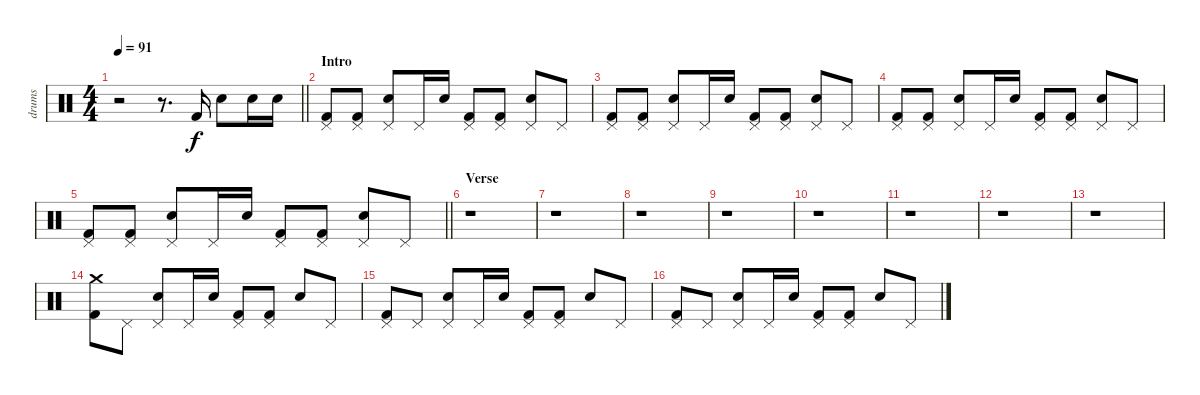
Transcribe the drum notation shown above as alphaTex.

\track ("drums" "drums") {instrument percussion}
\staff {score}
\articulation defaults
\ts (4 4)
\tempo 91
\clef neutral
\barLineRight lightlight
\ks c
r.2{dy f} r.8{d} "Kick (hit) 2".16 "Electric Snare (hit)".8 "Electric Snare (hit)".16 "Electric Snare (hit)".16 |
\section ("" "Intro")
("Pedal Hi-Hat (hit)" "Kick (hit) 2").8 ("Pedal Hi-Hat (hit)" "Kick (hit) 2").8 ("Pedal Hi-Hat (hit)" "Electric Snare (hit)").8 "Pedal Hi-Hat (hit)".16 "Electric Snare (hit)".16 ("Pedal Hi-Hat (hit)" "Kick (hit) 2").8 ("Pedal Hi-Hat (hit)" "Kick (hit) 2").8 ("Pedal Hi-Hat (hit)" "Electric Snare (hit)").8 "Pedal Hi-Hat (hit)".8 |
("Pedal Hi-Hat (hit)" "Kick (hit) 2").8 ("Pedal Hi-Hat (hit)" "Kick (hit) 2").8 ("Pedal Hi-Hat (hit)" "Electric Snare (hit)").8 "Pedal Hi-Hat (hit)".16 "Electric Snare (hit)".16 ("Pedal Hi-Hat (hit)" "Kick (hit) 2").8 ("Pedal Hi-Hat (hit)" "Kick (hit) 2").8 ("Pedal Hi-Hat (hit)" "Electric Snare (hit)").8 "Pedal Hi-Hat (hit)".8 |
("Pedal Hi-Hat (hit)" "Kick (hit) 2").8 ("Pedal Hi-Hat (hit)" "Kick (hit) 2").8 ("Pedal Hi-Hat (hit)" "Electric Snare (hit)").8 "Pedal Hi-Hat (hit)".16 "Electric Snare (hit)".16 ("Pedal Hi-Hat (hit)" "Kick (hit) 2").8 ("Pedal Hi-Hat (hit)" "Kick (hit) 2").8 ("Pedal Hi-Hat (hit)" "Electric Snare (hit)").8 "Pedal Hi-Hat (hit)".8 |
\barLineRight lightlight
("Pedal Hi-Hat (hit)" "Kick (hit) 2").8 ("Pedal Hi-Hat (hit)" "Kick (hit) 2").8 ("Pedal Hi-Hat (hit)" "Electric Snare (hit)").8 "Pedal Hi-Hat (hit)".16 "Electric Snare (hit)".16 ("Pedal Hi-Hat (hit)" "Kick (hit) 2").8 ("Pedal Hi-Hat (hit)" "Kick (hit) 2").8 ("Pedal Hi-Hat (hit)" "Electric Snare (hit)").8 "Pedal Hi-Hat (hit)".8 |
\section ("" "Verse")
r.1 |
r.1 |
r.1 |
r.1 |
r.1 |
r.1 |
r.1 |
r.1 |
("Crash medium (hit)" "Kick (hit) 2").8 "Pedal Hi-Hat (hit)".8 ("Pedal Hi-Hat (hit)" "Electric Snare (hit)").8 "Pedal Hi-Hat (hit)".16 "Electric Snare (hit)".16 ("Pedal Hi-Hat (hit)" "Kick (hit) 2").8 ("Pedal Hi-Hat (hit)" "Kick (hit) 2").8 "Electric Snare (hit)".8 "Pedal Hi-Hat (hit)".8 |
("Pedal Hi-Hat (hit)" "Kick (hit) 2").8 "Pedal Hi-Hat (hit)".8 ("Pedal Hi-Hat (hit)" "Electric Snare (hit)").8 "Pedal Hi-Hat (hit)".16 "Electric Snare (hit)".16 ("Pedal Hi-Hat (hit)" "Kick (hit) 2").8 ("Pedal Hi-Hat (hit)" "Kick (hit) 2").8 "Electric Snare (hit)".8 "Pedal Hi-Hat (hit)".8 |
("Pedal Hi-Hat (hit)" "Kick (hit) 2").8 "Pedal Hi-Hat (hit)".8 ("Pedal Hi-Hat (hit)" "Electric Snare (hit)").8 "Pedal Hi-Hat (hit)".16 "Electric Snare (hit)".16 ("Pedal Hi-Hat (hit)" "Kick (hit) 2").8 ("Pedal Hi-Hat (hit)" "Kick (hit) 2").8 "Electric Snare (hit)".8 "Pedal Hi-Hat (hit)".8
